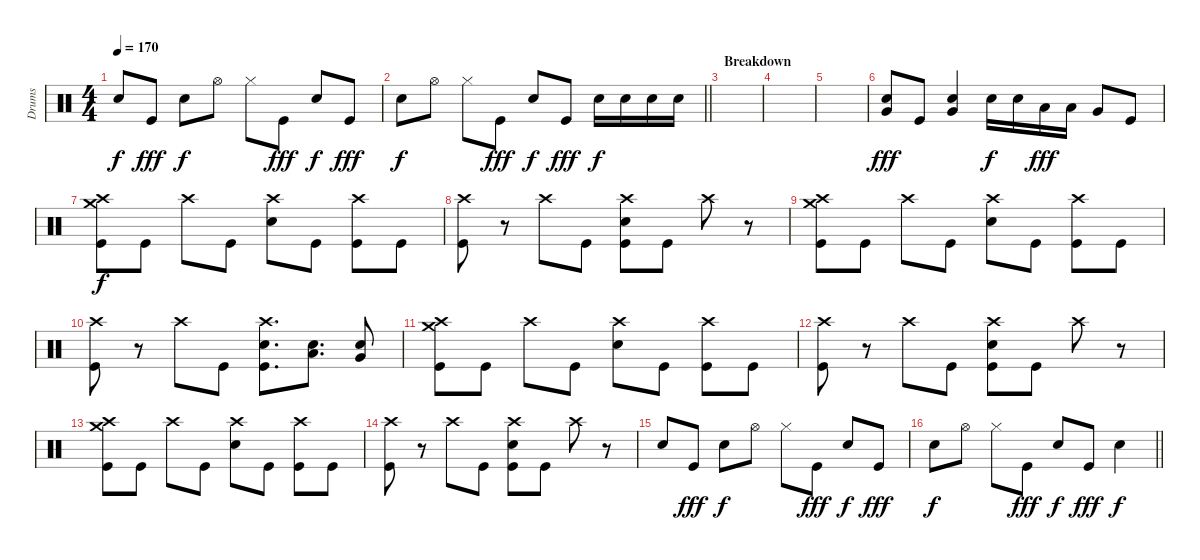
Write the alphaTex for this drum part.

\track ("Drums" "Drums") {instrument percussion}
\staff {score}
\articulation defaults
\ts (4 4)
\tempo 170
\clef neutral
\ks c "Electric Snare (hit)".8{dy f} "Kick (hit)".8{dy fff} "Electric Snare (hit)".8{dy f} "Hi-Hat (open)".8 "Hi-Hat (closed)".8 "Kick (hit)".8{dy fff} "Electric Snare (hit)".8{dy f} "Kick (hit)".8{dy fff}
|
\barLineRight lightlight "Electric Snare (hit)".8{dy f} "Hi-Hat (open)".8 "Hi-Hat (closed)".8 "Kick (hit)".8{dy fff} "Electric Snare (hit)".8{dy f} "Kick (hit)".8{dy fff} "Electric Snare (hit)".16{dy f} "Electric Snare (hit)".16 "Electric Snare (hit)".16 "Electric Snare (hit)".16
|
\section ("" "Breakdown")
|
|
|
("Electric Snare (hit)" "Very Low Tom (hit)").8{dy fff} "Kick (hit)".8 ("Electric Snare (hit)" "Very Low Tom (hit)").4 "Electric Snare (hit)".16{dy f} "Electric Snare (hit)".16 "Low Tom (hit)".16{dy fff} "Low Tom (hit)".16 "Very Low Tom (hit)".8 "Kick (hit)".8 |
("Crash high (hit)" "Crash medium (hit)" "Kick (hit)").8{dy f} "Kick (hit)".8 "Crash high (hit)".8 "Kick (hit)".8 ("Crash high (hit)" "Electric Snare (hit)").8 "Kick (hit)".8 ("Crash high (hit)" "Kick (hit)").8 "Kick (hit)".8 |
("Crash high (hit)" "Kick (hit)").8 r.8 "Crash high (hit)".8 "Kick (hit)".8 ("Crash high (hit)" "Electric Snare (hit)" "Kick (hit)").8 "Kick (hit)".8 "Crash high (hit)".8 r.8 |
("Crash high (hit)" "Crash medium (hit)" "Kick (hit)").8 "Kick (hit)".8 "Crash high (hit)".8 "Kick (hit)".8 ("Crash high (hit)" "Electric Snare (hit)").8 "Kick (hit)".8 ("Crash high (hit)" "Kick (hit)").8 "Kick (hit)".8 |
("Crash high (hit)" "Kick (hit)").8 r.8 "Crash high (hit)".8 "Kick (hit)".8 ("Crash high (hit)" "Electric Snare (hit)" "Kick (hit)").8{d} ("Low Tom (hit)" "Electric Snare (hit)").8{d} ("Electric Snare (hit)" "Very Low Tom (hit)").8 |
("Crash high (hit)" "Crash medium (hit)" "Kick (hit)").8 "Kick (hit)".8 "Crash high (hit)".8 "Kick (hit)".8 ("Crash high (hit)" "Electric Snare (hit)").8 "Kick (hit)".8 ("Crash high (hit)" "Kick (hit)").8 "Kick (hit)".8 |
("Crash high (hit)" "Kick (hit)").8 r.8 "Crash high (hit)".8 "Kick (hit)".8 ("Crash high (hit)" "Electric Snare (hit)" "Kick (hit)").8 "Kick (hit)".8 "Crash high (hit)".8 r.8 |
("Crash high (hit)" "Crash medium (hit)" "Kick (hit)").8 "Kick (hit)".8 "Crash high (hit)".8 "Kick (hit)".8 ("Crash high (hit)" "Electric Snare (hit)").8 "Kick (hit)".8 ("Crash high (hit)" "Kick (hit)").8 "Kick (hit)".8 |
("Crash high (hit)" "Kick (hit)").8 r.8 "Crash high (hit)".8 "Kick (hit)".8 ("Crash high (hit)" "Electric Snare (hit)" "Kick (hit)").8 "Kick (hit)".8 "Crash high (hit)".8 r.8 |
"Electric Snare (hit)".8 "Kick (hit)".8{dy fff} "Electric Snare (hit)".8{dy f} "Hi-Hat (open)".8 "Hi-Hat (closed)".8 "Kick (hit)".8{dy fff} "Electric Snare (hit)".8{dy f} "Kick (hit)".8{dy fff} |
\barLineRight lightlight "Electric Snare (hit)".8{dy f} "Hi-Hat (open)".8 "Hi-Hat (closed)".8 "Kick (hit)".8{dy fff} "Electric Snare (hit)".8{dy f} "Kick (hit)".8{dy fff} "Electric Snare (hit)".4{dy f}
